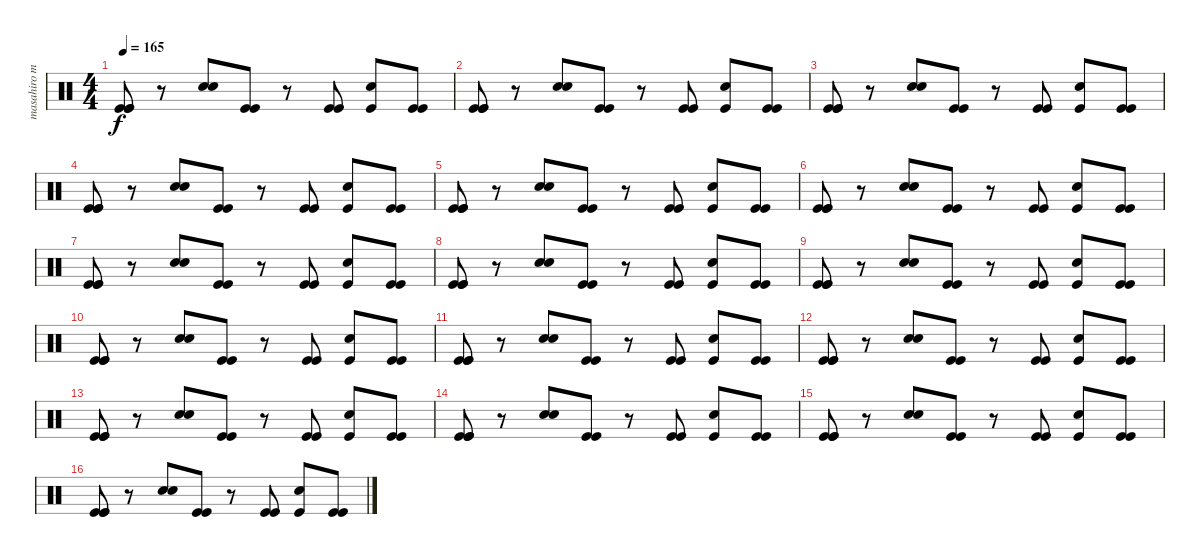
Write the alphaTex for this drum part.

\track ("masahiro muta" "masahiro m") {instrument percussion}
\staff {score}
\articulation defaults
\ts (4 4)
\tempo 165
\clef neutral
\ks c
("Kick (hit)" "Kick (hit)" "Kick (hit)").8{dy f} r.8 ("Electric Snare (hit)" "Electric Snare (hit)").8 ("Kick (hit)" "Kick (hit)").8 r.8 ("Kick (hit)" "Kick (hit)").8 ("Electric Snare (hit)" "Kick (hit)").8 ("Kick (hit)" "Kick (hit)").8 |
("Kick (hit)" "Kick (hit)" "Kick (hit)").8 r.8 ("Electric Snare (hit)" "Electric Snare (hit)").8 ("Kick (hit)" "Kick (hit)").8 r.8 ("Kick (hit)" "Kick (hit)").8 ("Electric Snare (hit)" "Kick (hit)").8 ("Kick (hit)" "Kick (hit)").8 |
("Kick (hit)" "Kick (hit)" "Kick (hit)").8 r.8 ("Electric Snare (hit)" "Electric Snare (hit)").8 ("Kick (hit)" "Kick (hit)").8 r.8 ("Kick (hit)" "Kick (hit)").8 ("Electric Snare (hit)" "Kick (hit)").8 ("Kick (hit)" "Kick (hit)").8 |
("Kick (hit)" "Kick (hit)" "Kick (hit)").8 r.8 ("Electric Snare (hit)" "Electric Snare (hit)").8 ("Kick (hit)" "Kick (hit)").8 r.8 ("Kick (hit)" "Kick (hit)").8 ("Electric Snare (hit)" "Kick (hit)").8 ("Kick (hit)" "Kick (hit)").8 |
("Kick (hit)" "Kick (hit)" "Kick (hit)").8 r.8 ("Electric Snare (hit)" "Electric Snare (hit)").8 ("Kick (hit)" "Kick (hit)").8 r.8 ("Kick (hit)" "Kick (hit)").8 ("Electric Snare (hit)" "Kick (hit)").8 ("Kick (hit)" "Kick (hit)").8 |
("Kick (hit)" "Kick (hit)" "Kick (hit)").8 r.8 ("Electric Snare (hit)" "Electric Snare (hit)").8 ("Kick (hit)" "Kick (hit)").8 r.8 ("Kick (hit)" "Kick (hit)").8 ("Electric Snare (hit)" "Kick (hit)").8 ("Kick (hit)" "Kick (hit)").8 |
("Kick (hit)" "Kick (hit)" "Kick (hit)").8 r.8 ("Electric Snare (hit)" "Electric Snare (hit)").8 ("Kick (hit)" "Kick (hit)").8 r.8 ("Kick (hit)" "Kick (hit)").8 ("Electric Snare (hit)" "Kick (hit)").8 ("Kick (hit)" "Kick (hit)").8 |
("Kick (hit)" "Kick (hit)" "Kick (hit)").8 r.8 ("Electric Snare (hit)" "Electric Snare (hit)").8 ("Kick (hit)" "Kick (hit)").8 r.8 ("Kick (hit)" "Kick (hit)").8 ("Electric Snare (hit)" "Kick (hit)").8 ("Kick (hit)" "Kick (hit)").8 |
("Kick (hit)" "Kick (hit)" "Kick (hit)").8 r.8 ("Electric Snare (hit)" "Electric Snare (hit)").8 ("Kick (hit)" "Kick (hit)").8 r.8 ("Kick (hit)" "Kick (hit)").8 ("Electric Snare (hit)" "Kick (hit)").8 ("Kick (hit)" "Kick (hit)").8 |
("Kick (hit)" "Kick (hit)" "Kick (hit)").8 r.8 ("Electric Snare (hit)" "Electric Snare (hit)").8 ("Kick (hit)" "Kick (hit)").8 r.8 ("Kick (hit)" "Kick (hit)").8 ("Electric Snare (hit)" "Kick (hit)").8 ("Kick (hit)" "Kick (hit)").8 |
("Kick (hit)" "Kick (hit)" "Kick (hit)").8 r.8 ("Electric Snare (hit)" "Electric Snare (hit)").8 ("Kick (hit)" "Kick (hit)").8 r.8 ("Kick (hit)" "Kick (hit)").8 ("Electric Snare (hit)" "Kick (hit)").8 ("Kick (hit)" "Kick (hit)").8 |
("Kick (hit)" "Kick (hit)" "Kick (hit)").8 r.8 ("Electric Snare (hit)" "Electric Snare (hit)").8 ("Kick (hit)" "Kick (hit)").8 r.8 ("Kick (hit)" "Kick (hit)").8 ("Electric Snare (hit)" "Kick (hit)").8 ("Kick (hit)" "Kick (hit)").8 |
("Kick (hit)" "Kick (hit)" "Kick (hit)").8 r.8 ("Electric Snare (hit)" "Electric Snare (hit)").8 ("Kick (hit)" "Kick (hit)").8 r.8 ("Kick (hit)" "Kick (hit)").8 ("Electric Snare (hit)" "Kick (hit)").8 ("Kick (hit)" "Kick (hit)").8 |
("Kick (hit)" "Kick (hit)" "Kick (hit)").8 r.8 ("Electric Snare (hit)" "Electric Snare (hit)").8 ("Kick (hit)" "Kick (hit)").8 r.8 ("Kick (hit)" "Kick (hit)").8 ("Electric Snare (hit)" "Kick (hit)").8 ("Kick (hit)" "Kick (hit)").8 |
("Kick (hit)" "Kick (hit)" "Kick (hit)").8 r.8 ("Electric Snare (hit)" "Electric Snare (hit)").8 ("Kick (hit)" "Kick (hit)").8 r.8 ("Kick (hit)" "Kick (hit)").8 ("Electric Snare (hit)" "Kick (hit)").8 ("Kick (hit)" "Kick (hit)").8 |
("Kick (hit)" "Kick (hit)" "Kick (hit)").8 r.8 ("Electric Snare (hit)" "Electric Snare (hit)").8 ("Kick (hit)" "Kick (hit)").8 r.8 ("Kick (hit)" "Kick (hit)").8 ("Electric Snare (hit)" "Kick (hit)").8 ("Kick (hit)" "Kick (hit)").8
